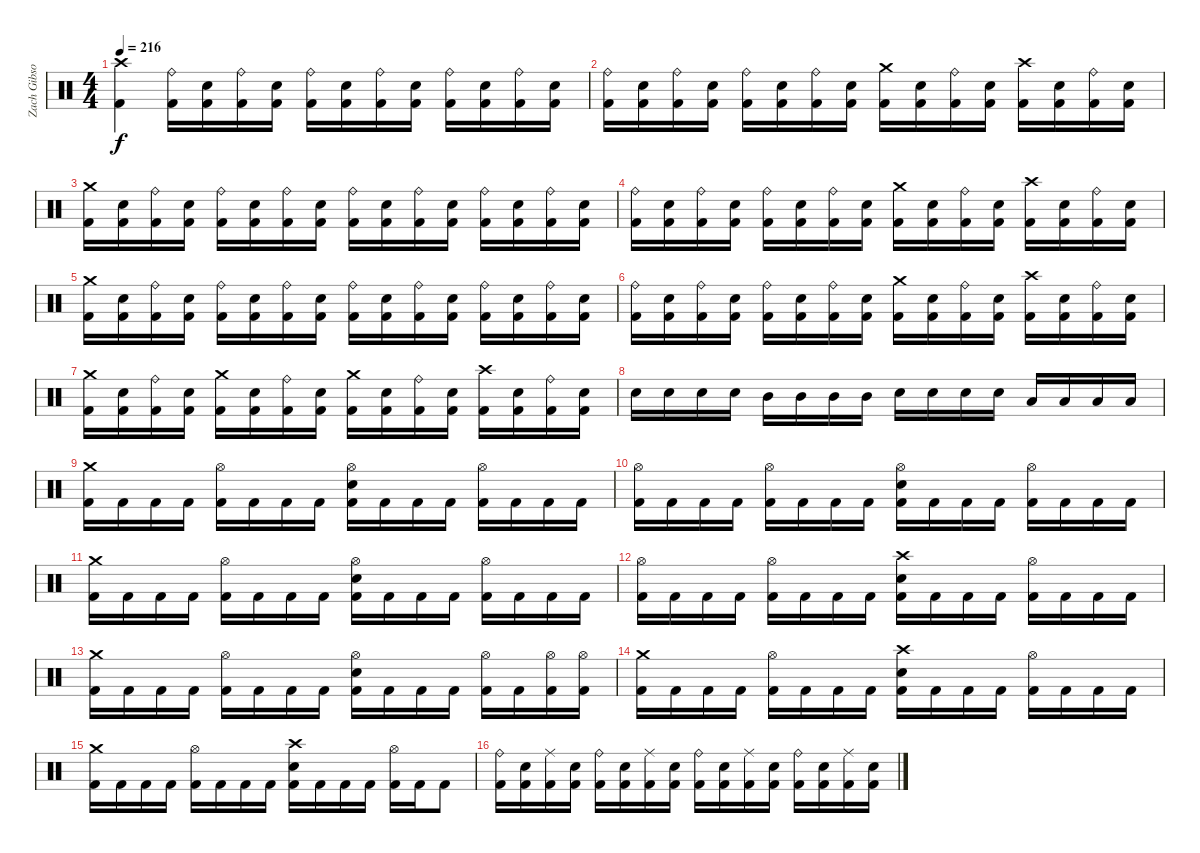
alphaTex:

\track ("Zach Gibson (Ex-Drums)" "Zach Gibso") {instrument percussion}
\staff {score}
\articulation defaults
\ts (4 4)
\tempo 216
\clef neutral
\ks c
("Crash high (hit)" "Kick (hit) 2").4{dy f} ("Ride (bell)" "Kick (hit) 2").16 ("Snare (hit) 2" "Kick (hit) 2").16 ("Ride (bell)" "Kick (hit) 2").16 ("Snare (hit) 2" "Kick (hit) 2").16 ("Ride (bell)" "Kick (hit) 2").16 ("Snare (hit) 2" "Kick (hit) 2").16 ("Ride (bell)" "Kick (hit) 2").16 ("Snare (hit) 2" "Kick (hit) 2").16 ("Ride (bell)" "Kick (hit) 2").16 ("Snare (hit) 2" "Kick (hit) 2").16 ("Ride (bell)" "Kick (hit) 2").16 ("Snare (hit) 2" "Kick (hit) 2").16 |
("Ride (bell)" "Kick (hit) 2").16 ("Snare (hit) 2" "Kick (hit) 2").16 ("Ride (bell)" "Kick (hit) 2").16 ("Snare (hit) 2" "Kick (hit) 2").16 ("Ride (bell)" "Kick (hit) 2").16 ("Snare (hit) 2" "Kick (hit) 2").16 ("Ride (bell)" "Kick (hit) 2").16 ("Snare (hit) 2" "Kick (hit) 2").16 ("Crash medium (hit)" "Kick (hit) 2").16 ("Snare (hit) 2" "Kick (hit) 2").16 ("Ride (bell)" "Kick (hit) 2").16 ("Snare (hit) 2" "Kick (hit) 2").16 ("Crash high (hit)" "Kick (hit) 2").16 ("Snare (hit) 2" "Kick (hit) 2").16 ("Ride (bell)" "Kick (hit) 2").16 ("Snare (hit) 2" "Kick (hit) 2").16 |
("Crash medium (hit)" "Kick (hit) 2").16 ("Snare (hit) 2" "Kick (hit) 2").16 ("Ride (bell)" "Kick (hit) 2").16 ("Snare (hit) 2" "Kick (hit) 2").16 ("Ride (bell)" "Kick (hit) 2").16 ("Snare (hit) 2" "Kick (hit) 2").16 ("Ride (bell)" "Kick (hit) 2").16 ("Snare (hit) 2" "Kick (hit) 2").16 ("Ride (bell)" "Kick (hit) 2").16 ("Snare (hit) 2" "Kick (hit) 2").16 ("Ride (bell)" "Kick (hit) 2").16 ("Snare (hit) 2" "Kick (hit) 2").16 ("Ride (bell)" "Kick (hit) 2").16 ("Snare (hit) 2" "Kick (hit) 2").16 ("Ride (bell)" "Kick (hit) 2").16 ("Snare (hit) 2" "Kick (hit) 2").16 |
("Ride (bell)" "Kick (hit) 2").16 ("Snare (hit) 2" "Kick (hit) 2").16 ("Ride (bell)" "Kick (hit) 2").16 ("Snare (hit) 2" "Kick (hit) 2").16 ("Ride (bell)" "Kick (hit) 2").16 ("Snare (hit) 2" "Kick (hit) 2").16 ("Ride (bell)" "Kick (hit) 2").16 ("Snare (hit) 2" "Kick (hit) 2").16 ("Crash medium (hit)" "Kick (hit) 2").16 ("Snare (hit) 2" "Kick (hit) 2").16 ("Ride (bell)" "Kick (hit) 2").16 ("Snare (hit) 2" "Kick (hit) 2").16 ("Crash high (hit)" "Kick (hit) 2").16 ("Snare (hit) 2" "Kick (hit) 2").16 ("Ride (bell)" "Kick (hit) 2").16 ("Snare (hit) 2" "Kick (hit) 2").16 |
("Crash medium (hit)" "Kick (hit) 2").16 ("Snare (hit) 2" "Kick (hit) 2").16 ("Ride (bell)" "Kick (hit) 2").16 ("Snare (hit) 2" "Kick (hit) 2").16 ("Ride (bell)" "Kick (hit) 2").16 ("Snare (hit) 2" "Kick (hit) 2").16 ("Ride (bell)" "Kick (hit) 2").16 ("Snare (hit) 2" "Kick (hit) 2").16 ("Ride (bell)" "Kick (hit) 2").16 ("Snare (hit) 2" "Kick (hit) 2").16 ("Ride (bell)" "Kick (hit) 2").16 ("Snare (hit) 2" "Kick (hit) 2").16 ("Ride (bell)" "Kick (hit) 2").16 ("Snare (hit) 2" "Kick (hit) 2").16 ("Ride (bell)" "Kick (hit) 2").16 ("Snare (hit) 2" "Kick (hit) 2").16 |
("Ride (bell)" "Kick (hit) 2").16 ("Snare (hit) 2" "Kick (hit) 2").16 ("Ride (bell)" "Kick (hit) 2").16 ("Snare (hit) 2" "Kick (hit) 2").16 ("Ride (bell)" "Kick (hit) 2").16 ("Snare (hit) 2" "Kick (hit) 2").16 ("Ride (bell)" "Kick (hit) 2").16 ("Snare (hit) 2" "Kick (hit) 2").16 ("Crash medium (hit)" "Kick (hit) 2").16 ("Snare (hit) 2" "Kick (hit) 2").16 ("Ride (bell)" "Kick (hit) 2").16 ("Snare (hit) 2" "Kick (hit) 2").16 ("Crash high (hit)" "Kick (hit) 2").16 ("Snare (hit) 2" "Kick (hit) 2").16 ("Ride (bell)" "Kick (hit) 2").16 ("Snare (hit) 2" "Kick (hit) 2").16 |
("Crash medium (hit)" "Kick (hit) 2").16 ("Snare (hit) 2" "Kick (hit) 2").16 ("Ride (bell)" "Kick (hit) 2").16 ("Snare (hit) 2" "Kick (hit) 2").16 ("Crash medium (hit)" "Kick (hit) 2").16 ("Snare (hit) 2" "Kick (hit) 2").16 ("Ride (bell)" "Kick (hit) 2").16 ("Snare (hit) 2" "Kick (hit) 2").16 ("Crash medium (hit)" "Kick (hit) 2").16 ("Snare (hit) 2" "Kick (hit) 2").16 ("Ride (bell)" "Kick (hit) 2").16 ("Snare (hit) 2" "Kick (hit) 2").16 ("Crash high (hit)" "Kick (hit) 2").16 ("Snare (hit) 2" "Kick (hit) 2").16 ("Ride (bell)" "Kick (hit) 2").16 ("Snare (hit) 2" "Kick (hit) 2").16 |
"Snare (hit) 2".16 "Snare (hit) 2".16 "Snare (hit) 2".16 "Snare (hit) 2".16 "Mid Tom (hit)".16 "Mid Tom (hit)".16 "Mid Tom (hit)".16 "Mid Tom (hit)".16 "Snare (hit) 2".16 "Snare (hit) 2".16 "Snare (hit) 2".16 "Snare (hit) 2".16 "Low Tom (hit)".16 "Low Tom (hit)".16 "Low Tom (hit)".16 "Low Tom (hit)".16 |
("Crash medium (hit)" "Kick (hit) 2").16 "Kick (hit) 2".16 "Kick (hit) 2".16 "Kick (hit) 2".16 ("Hi-Hat (open)" "Kick (hit) 2").16 "Kick (hit) 2".16 "Kick (hit) 2".16 "Kick (hit) 2".16 ("Hi-Hat (open)" "Snare (hit) 2" "Kick (hit) 2").16 "Kick (hit) 2".16 "Kick (hit) 2".16 "Kick (hit) 2".16 ("Hi-Hat (open)" "Kick (hit) 2").16 "Kick (hit) 2".16 "Kick (hit) 2".16 "Kick (hit) 2".16 |
("Hi-Hat (open)" "Kick (hit) 2").16 "Kick (hit) 2".16 "Kick (hit) 2".16 "Kick (hit) 2".16 ("Hi-Hat (open)" "Kick (hit) 2").16 "Kick (hit) 2".16 "Kick (hit) 2".16 "Kick (hit) 2".16 ("Hi-Hat (open)" "Snare (hit) 2" "Kick (hit) 2").16 "Kick (hit) 2".16 "Kick (hit) 2".16 "Kick (hit) 2".16 ("Hi-Hat (open)" "Kick (hit) 2").16 "Kick (hit) 2".16 "Kick (hit) 2".16 "Kick (hit) 2".16 |
("Crash medium (hit)" "Kick (hit) 2").16 "Kick (hit) 2".16 "Kick (hit) 2".16 "Kick (hit) 2".16 ("Hi-Hat (open)" "Kick (hit) 2").16 "Kick (hit) 2".16 "Kick (hit) 2".16 "Kick (hit) 2".16 ("Hi-Hat (open)" "Snare (hit) 2" "Kick (hit) 2").16 "Kick (hit) 2".16 "Kick (hit) 2".16 "Kick (hit) 2".16 ("Hi-Hat (open)" "Kick (hit) 2").16 "Kick (hit) 2".16 "Kick (hit) 2".16 "Kick (hit) 2".16 |
("Hi-Hat (open)" "Kick (hit) 2").16 "Kick (hit) 2".16 "Kick (hit) 2".16 "Kick (hit) 2".16 ("Hi-Hat (open)" "Kick (hit) 2").16 "Kick (hit) 2".16 "Kick (hit) 2".16 "Kick (hit) 2".16 ("Crash high (hit)" "Snare (hit) 2" "Kick (hit) 2").16 "Kick (hit) 2".16 "Kick (hit) 2".16 "Kick (hit) 2".16 ("Hi-Hat (open)" "Kick (hit) 2").16 "Kick (hit) 2".16 "Kick (hit) 2".16 "Kick (hit) 2".16 |
("Crash medium (hit)" "Kick (hit) 2").16 "Kick (hit) 2".16 "Kick (hit) 2".16 "Kick (hit) 2".16 ("Hi-Hat (open)" "Kick (hit) 2").16 "Kick (hit) 2".16 "Kick (hit) 2".16 "Kick (hit) 2".16 ("Hi-Hat (open)" "Snare (hit) 2" "Kick (hit) 2").16 "Kick (hit) 2".16 "Kick (hit) 2".16 "Kick (hit) 2".16 ("Hi-Hat (open)" "Kick (hit) 2").16 "Kick (hit) 2".16 ("Hi-Hat (open)" "Kick (hit) 2").16 ("Hi-Hat (open)" "Kick (hit) 2").16 |
("Crash medium (hit)" "Kick (hit) 2").16 "Kick (hit) 2".16 "Kick (hit) 2".16 "Kick (hit) 2".16 ("Hi-Hat (open)" "Kick (hit) 2").16 "Kick (hit) 2".16 "Kick (hit) 2".16 "Kick (hit) 2".16 ("Crash high (hit)" "Snare (hit) 2" "Kick (hit) 2").16 "Kick (hit) 2".16 "Kick (hit) 2".16 "Kick (hit) 2".16 ("Hi-Hat (open)" "Kick (hit) 2").16 "Kick (hit) 2".16 "Kick (hit) 2".16 "Kick (hit) 2".16 |
("Crash medium (hit)" "Kick (hit) 2").16 "Kick (hit) 2".16 "Kick (hit) 2".16 "Kick (hit) 2".16 ("Hi-Hat (open)" "Kick (hit) 2").16 "Kick (hit) 2".16 "Kick (hit) 2".16 "Kick (hit) 2".16 ("Crash high (hit)" "Snare (hit) 2" "Kick (hit) 2").16 "Kick (hit) 2".16 "Kick (hit) 2".16 "Kick (hit) 2".16 ("Hi-Hat (open)" "Kick (hit) 2").16 "Kick (hit) 2".16 "Kick (hit) 2".8 |
("Ride (bell)" "Kick (hit) 2").16 ("Snare (hit) 2" "Kick (hit) 2").16 ("Ride (middle)" "Kick (hit) 2").16 ("Snare (hit) 2" "Kick (hit) 2").16 ("Ride (bell)" "Kick (hit) 2").16 ("Snare (hit) 2" "Kick (hit) 2").16 ("Ride (middle)" "Kick (hit) 2").16 ("Snare (hit) 2" "Kick (hit) 2").16 ("Ride (bell)" "Kick (hit) 2").16 ("Snare (hit) 2" "Kick (hit) 2").16 ("Ride (middle)" "Kick (hit) 2").16 ("Snare (hit) 2" "Kick (hit) 2").16 ("Ride (bell)" "Kick (hit) 2").16 ("Snare (hit) 2" "Kick (hit) 2").16 ("Ride (middle)" "Kick (hit) 2").16 ("Snare (hit) 2" "Kick (hit) 2").16
